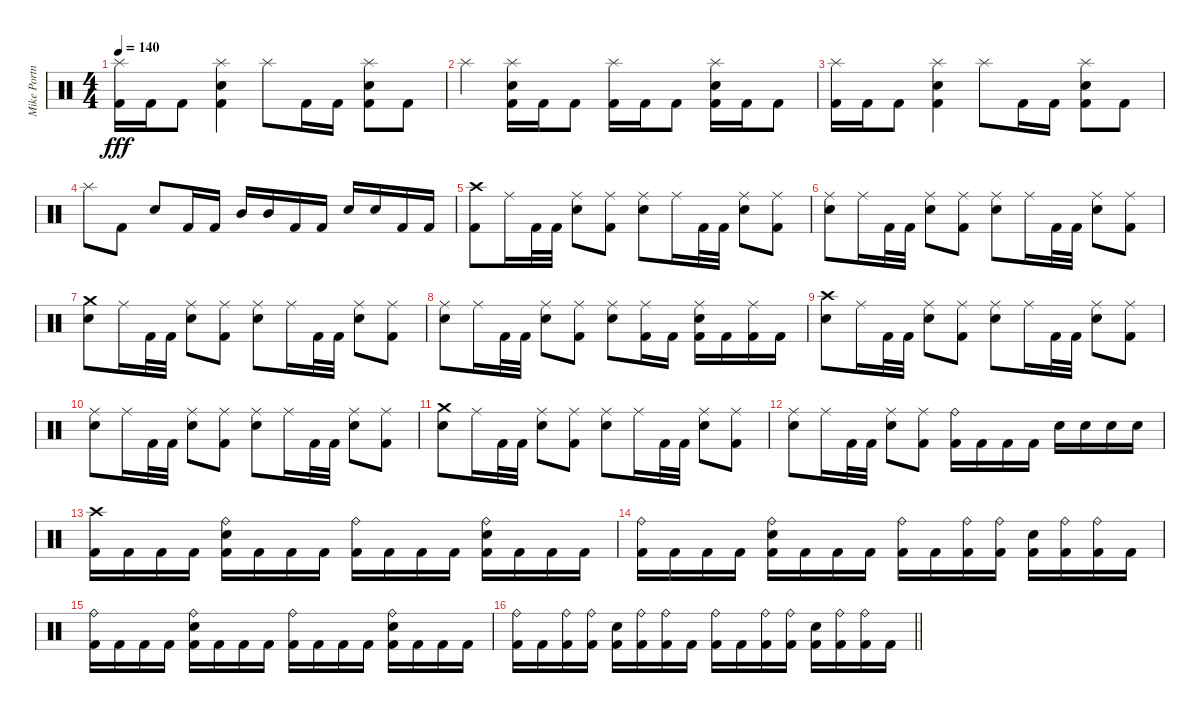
\track ("Mike Portnoy" "Mike Portn") {instrument percussion}
\staff {score}
\articulation defaults
\ts (4 4)
\tempo 140
\clef neutral
\ks c
("Splash (hit)" "Kick (hit) 2").16{dy fff} "Kick (hit) 2".16 "Kick (hit) 2".8 ("Splash (hit)" "Snare (hit) 2" "Kick (hit) 2").4 "Splash (hit)".8 "Kick (hit) 2".16 "Kick (hit) 2".16 ("Splash (hit)" "Snare (hit) 2" "Kick (hit) 2").8 "Kick (hit) 2".8 |
"Splash (hit)".4 ("Splash (hit)" "Snare (hit) 2" "Kick (hit) 2").16 "Kick (hit) 2".16 "Kick (hit) 2".8 ("Splash (hit)" "Kick (hit) 2").16 "Kick (hit) 2".16 "Kick (hit) 2".8 ("Splash (hit)" "Snare (hit) 2" "Kick (hit) 2").16 "Kick (hit) 2".16 "Kick (hit) 2".8 |
("Splash (hit)" "Kick (hit) 2").16 "Kick (hit) 2".16 "Kick (hit) 2".8 ("Splash (hit)" "Snare (hit) 2" "Kick (hit) 2").4 "Splash (hit)".8 "Kick (hit) 2".16 "Kick (hit) 2".16 ("Splash (hit)" "Snare (hit) 2" "Kick (hit) 2").8 "Kick (hit) 2".8 |
"Splash (hit)".8 "Kick (hit) 2".8 "Snare (hit) 2".8 "Kick (hit) 2".16 "Kick (hit) 2".16 "Mid Tom (hit)".16 "Mid Tom (hit)".16 "Kick (hit) 2".16 "Kick (hit) 2".16 "Snare (hit) 2".16 "Snare (hit) 2".16 "Kick (hit) 2".16 "Kick (hit) 2".16 |
("Crash high (hit)" "Kick (hit) 2").8 "Ride (middle)".16 "Kick (hit) 2".32 "Kick (hit) 2".32 ("Ride (middle)" "Snare (hit) 2").8 ("Ride (middle)" "Kick (hit) 2").8 ("Ride (middle)" "Snare (hit) 2").8 "Ride (middle)".16 "Kick (hit) 2".32 "Kick (hit) 2".32 ("Ride (middle)" "Snare (hit) 2").8 ("Ride (middle)" "Kick (hit) 2").8 |
("Ride (middle)" "Snare (hit) 2").8 "Ride (middle)".16 "Kick (hit) 2".32 "Kick (hit) 2".32 ("Ride (middle)" "Snare (hit) 2").8 ("Ride (middle)" "Kick (hit) 2").8 ("Ride (middle)" "Snare (hit) 2").8 "Ride (middle)".16 "Kick (hit) 2".32 "Kick (hit) 2".32 ("Ride (middle)" "Snare (hit) 2").8 ("Ride (middle)" "Kick (hit) 2").8 |
("Crash medium (hit)" "Snare (hit) 2").8 "Ride (middle)".16 "Kick (hit) 2".32 "Kick (hit) 2".32 ("Ride (middle)" "Snare (hit) 2").8 ("Ride (middle)" "Kick (hit) 2").8 ("Ride (middle)" "Snare (hit) 2").8 "Ride (middle)".16 "Kick (hit) 2".32 "Kick (hit) 2".32 ("Ride (middle)" "Snare (hit) 2").8 ("Ride (middle)" "Kick (hit) 2").8 |
("Ride (middle)" "Snare (hit) 2").8 "Ride (middle)".16 "Kick (hit) 2".32 "Kick (hit) 2".32 ("Ride (middle)" "Snare (hit) 2").8 ("Ride (middle)" "Kick (hit) 2").8 ("Ride (middle)" "Snare (hit) 2").8 ("Ride (middle)" "Kick (hit) 2").16 "Kick (hit) 2".16 ("Ride (middle)" "Snare (hit) 2" "Kick (hit) 2").16 "Kick (hit) 2".16 ("Ride (middle)" "Kick (hit) 2").16 "Kick (hit) 2".16 |
("Crash high (hit)" "Snare (hit) 2").8 "Ride (middle)".16 "Kick (hit) 2".32 "Kick (hit) 2".32 ("Ride (middle)" "Snare (hit) 2").8 ("Ride (middle)" "Kick (hit) 2").8 ("Ride (middle)" "Snare (hit) 2").8 "Ride (middle)".16 "Kick (hit) 2".32 "Kick (hit) 2".32 ("Ride (middle)" "Snare (hit) 2").8 ("Ride (middle)" "Kick (hit) 2").8 |
("Ride (middle)" "Snare (hit) 2").8 "Ride (middle)".16 "Kick (hit) 2".32 "Kick (hit) 2".32 ("Ride (middle)" "Snare (hit) 2").8 ("Ride (middle)" "Kick (hit) 2").8 ("Ride (middle)" "Snare (hit) 2").8 "Ride (middle)".16 "Kick (hit) 2".32 "Kick (hit) 2".32 ("Ride (middle)" "Snare (hit) 2").8 ("Ride (middle)" "Kick (hit) 2").8 |
("Crash medium (hit)" "Snare (hit) 2").8 "Ride (middle)".16 "Kick (hit) 2".32 "Kick (hit) 2".32 ("Ride (middle)" "Snare (hit) 2").8 ("Ride (middle)" "Kick (hit) 2").8 ("Ride (middle)" "Snare (hit) 2").8 "Ride (middle)".16 "Kick (hit) 2".32 "Kick (hit) 2".32 ("Ride (middle)" "Snare (hit) 2").8 ("Ride (middle)" "Kick (hit) 2").8 |
("Ride (middle)" "Snare (hit) 2").8 "Ride (middle)".16 "Kick (hit) 2".32 "Kick (hit) 2".32 ("Ride (middle)" "Snare (hit) 2").8 ("Ride (middle)" "Kick (hit) 2").8 ("Ride (bell)" "Kick (hit) 2").16 "Kick (hit) 2".16 "Kick (hit) 2".16 "Kick (hit) 2".16 "Snare (hit) 2".16 "Snare (hit) 2".16 "Snare (hit) 2".16 "Snare (hit) 2".16 |
("Crash high (hit)" "Kick (hit) 2").16 "Kick (hit) 2".16 "Kick (hit) 2".16 "Kick (hit) 2".16 ("Ride (bell)" "Snare (hit) 2" "Kick (hit) 2").16 "Kick (hit) 2".16 "Kick (hit) 2".16 "Kick (hit) 2".16 ("Ride (bell)" "Kick (hit) 2").16 "Kick (hit) 2".16 "Kick (hit) 2".16 "Kick (hit) 2".16 ("Ride (bell)" "Snare (hit) 2" "Kick (hit) 2").16 "Kick (hit) 2".16 "Kick (hit) 2".16 "Kick (hit) 2".16 |
("Ride (bell)" "Kick (hit) 2").16 "Kick (hit) 2".16 "Kick (hit) 2".16 "Kick (hit) 2".16 ("Ride (bell)" "Snare (hit) 2" "Kick (hit) 2").16 "Kick (hit) 2".16 "Kick (hit) 2".16 "Kick (hit) 2".16 ("Ride (bell)" "Kick (hit) 2").16 "Kick (hit) 2".16 ("Ride (bell)" "Kick (hit) 2").16 ("Ride (bell)" "Kick (hit) 2").16 ("Snare (hit) 2" "Kick (hit) 2").16 ("Ride (bell)" "Kick (hit) 2").16 ("Ride (bell)" "Kick (hit) 2").16 "Kick (hit) 2".16 |
("Ride (bell)" "Kick (hit) 2").16 "Kick (hit) 2".16 "Kick (hit) 2".16 "Kick (hit) 2".16 ("Ride (bell)" "Snare (hit) 2" "Kick (hit) 2").16 "Kick (hit) 2".16 "Kick (hit) 2".16 "Kick (hit) 2".16 ("Ride (bell)" "Kick (hit) 2").16 "Kick (hit) 2".16 "Kick (hit) 2".16 "Kick (hit) 2".16 ("Ride (bell)" "Snare (hit) 2" "Kick (hit) 2").16 "Kick (hit) 2".16 "Kick (hit) 2".16 "Kick (hit) 2".16 |
\barLineRight lightlight
("Ride (bell)" "Kick (hit) 2").16 "Kick (hit) 2".16 ("Ride (bell)" "Kick (hit) 2").16 ("Ride (bell)" "Kick (hit) 2").16 ("Snare (hit) 2" "Kick (hit) 2").16 ("Ride (bell)" "Kick (hit) 2").16 ("Ride (bell)" "Kick (hit) 2").16 "Kick (hit) 2".16 ("Ride (bell)" "Kick (hit) 2").16 "Kick (hit) 2".16 ("Ride (bell)" "Kick (hit) 2").16 ("Ride (bell)" "Kick (hit) 2").16 ("Snare (hit) 2" "Kick (hit) 2").16 ("Ride (bell)" "Kick (hit) 2").16 ("Ride (bell)" "Kick (hit) 2").16 "Kick (hit) 2".16
